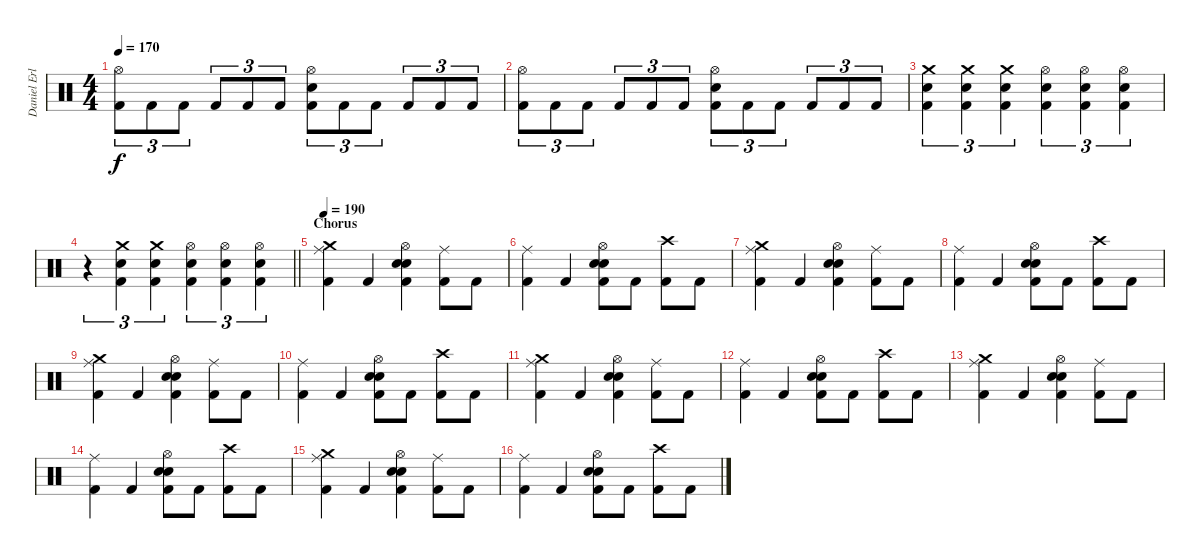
\track ("Daniel Erlandsson" "Daniel Erl") {instrument percussion}
\staff {score}
\articulation defaults
\ts (4 4)
\tempo 170
\clef neutral
\ks c
("Hi-Hat (open)" "Kick (hit) 2").8{tu (3 2) dy f} "Kick (hit) 2".8{tu (3 2)} "Kick (hit) 2".8{tu (3 2)} "Kick (hit) 2".8{tu (3 2)} "Kick (hit) 2".8{tu (3 2)} "Kick (hit) 2".8{tu (3 2)} ("Hi-Hat (open)" "Snare (hit) 2" "Kick (hit) 2").8{tu (3 2)} "Kick (hit) 2".8{tu (3 2)} "Kick (hit) 2".8{tu (3 2)} "Kick (hit) 2".8{tu (3 2)} "Kick (hit) 2".8{tu (3 2)} "Kick (hit) 2".8{tu (3 2)} |
("Hi-Hat (open)" "Kick (hit) 2").8{tu (3 2)} "Kick (hit) 2".8{tu (3 2)} "Kick (hit) 2".8{tu (3 2)} "Kick (hit) 2".8{tu (3 2)} "Kick (hit) 2".8{tu (3 2)} "Kick (hit) 2".8{tu (3 2)} ("Hi-Hat (open)" "Snare (hit) 2" "Kick (hit) 2").8{tu (3 2)} "Kick (hit) 2".8{tu (3 2)} "Kick (hit) 2".8{tu (3 2)} "Kick (hit) 2".8{tu (3 2)} "Kick (hit) 2".8{tu (3 2)} "Kick (hit) 2".8{tu (3 2)} |
("Crash medium (hit)" "Snare (hit) 2" "Kick (hit) 2").4{tu (3 2)} ("Crash medium (hit)" "Snare (hit) 2" "Kick (hit) 2").4{tu (3 2)} ("Crash medium (hit)" "Snare (hit) 2" "Kick (hit) 2").4{tu (3 2)} ("Hi-Hat (open)" "Snare (hit) 2" "Kick (hit) 2").4{tu (3 2)} ("Hi-Hat (open)" "Snare (hit) 2" "Kick (hit) 2").4{tu (3 2)} ("Hi-Hat (open)" "Snare (hit) 2" "Kick (hit) 2").4{tu (3 2)} |
\barLineRight lightlight
r.4{tu (3 2)} ("Crash medium (hit)" "Snare (hit) 2" "Kick (hit) 2").4{tu (3 2)} ("Crash medium (hit)" "Snare (hit) 2" "Kick (hit) 2").4{tu (3 2)} ("Hi-Hat (open)" "Snare (hit) 2" "Kick (hit) 2").4{tu (3 2)} ("Hi-Hat (open)" "Snare (hit) 2" "Kick (hit) 2").4{tu (3 2)} ("Hi-Hat (open)" "Snare (hit) 2" "Kick (hit) 2").4{tu (3 2)} |
\section ("" "Chorus")
\tempo 190
("Crash medium (hit)" "Ride (middle)" "Kick (hit) 2").4 "Kick (hit) 2".4 ("Hi-Hat (open)" "Snare (hit) 2" "Electric Snare (hit)" "Kick (hit) 2").4 ("Ride (middle)" "Kick (hit) 2").8 "Kick (hit) 2".8 |
("Ride (middle)" "Kick (hit) 2").4 "Kick (hit) 2".4 ("Hi-Hat (open)" "Snare (hit) 2" "Electric Snare (hit)" "Kick (hit) 2").8 "Kick (hit) 2".8 ("Crash high (hit)" "Kick (hit) 2").8 "Kick (hit) 2".8 |
("Crash medium (hit)" "Ride (middle)" "Kick (hit) 2").4 "Kick (hit) 2".4 ("Hi-Hat (open)" "Snare (hit) 2" "Electric Snare (hit)" "Kick (hit) 2").4 ("Ride (middle)" "Kick (hit) 2").8 "Kick (hit) 2".8 |
("Ride (middle)" "Kick (hit) 2").4 "Kick (hit) 2".4 ("Hi-Hat (open)" "Snare (hit) 2" "Electric Snare (hit)" "Kick (hit) 2").8 "Kick (hit) 2".8 ("Crash high (hit)" "Kick (hit) 2").8 "Kick (hit) 2".8 |
("Crash medium (hit)" "Ride (middle)" "Kick (hit) 2").4 "Kick (hit) 2".4 ("Hi-Hat (open)" "Snare (hit) 2" "Electric Snare (hit)" "Kick (hit) 2").4 ("Ride (middle)" "Kick (hit) 2").8 "Kick (hit) 2".8 |
("Ride (middle)" "Kick (hit) 2").4 "Kick (hit) 2".4 ("Hi-Hat (open)" "Snare (hit) 2" "Electric Snare (hit)" "Kick (hit) 2").8 "Kick (hit) 2".8 ("Crash high (hit)" "Kick (hit) 2").8 "Kick (hit) 2".8 |
("Crash medium (hit)" "Ride (middle)" "Kick (hit) 2").4 "Kick (hit) 2".4 ("Hi-Hat (open)" "Snare (hit) 2" "Electric Snare (hit)" "Kick (hit) 2").4 ("Ride (middle)" "Kick (hit) 2").8 "Kick (hit) 2".8 |
("Ride (middle)" "Kick (hit) 2").4 "Kick (hit) 2".4 ("Hi-Hat (open)" "Snare (hit) 2" "Electric Snare (hit)" "Kick (hit) 2").8 "Kick (hit) 2".8 ("Crash high (hit)" "Kick (hit) 2").8 "Kick (hit) 2".8 |
("Crash medium (hit)" "Ride (middle)" "Kick (hit) 2").4 "Kick (hit) 2".4 ("Hi-Hat (open)" "Snare (hit) 2" "Electric Snare (hit)" "Kick (hit) 2").4 ("Ride (middle)" "Kick (hit) 2").8 "Kick (hit) 2".8 |
("Ride (middle)" "Kick (hit) 2").4 "Kick (hit) 2".4 ("Hi-Hat (open)" "Snare (hit) 2" "Electric Snare (hit)" "Kick (hit) 2").8 "Kick (hit) 2".8 ("Crash high (hit)" "Kick (hit) 2").8 "Kick (hit) 2".8 |
("Crash medium (hit)" "Ride (middle)" "Kick (hit) 2").4 "Kick (hit) 2".4 ("Hi-Hat (open)" "Snare (hit) 2" "Electric Snare (hit)" "Kick (hit) 2").4 ("Ride (middle)" "Kick (hit) 2").8 "Kick (hit) 2".8 |
("Ride (middle)" "Kick (hit) 2").4 "Kick (hit) 2".4 ("Hi-Hat (open)" "Snare (hit) 2" "Electric Snare (hit)" "Kick (hit) 2").8 "Kick (hit) 2".8 ("Crash high (hit)" "Kick (hit) 2").8 "Kick (hit) 2".8
